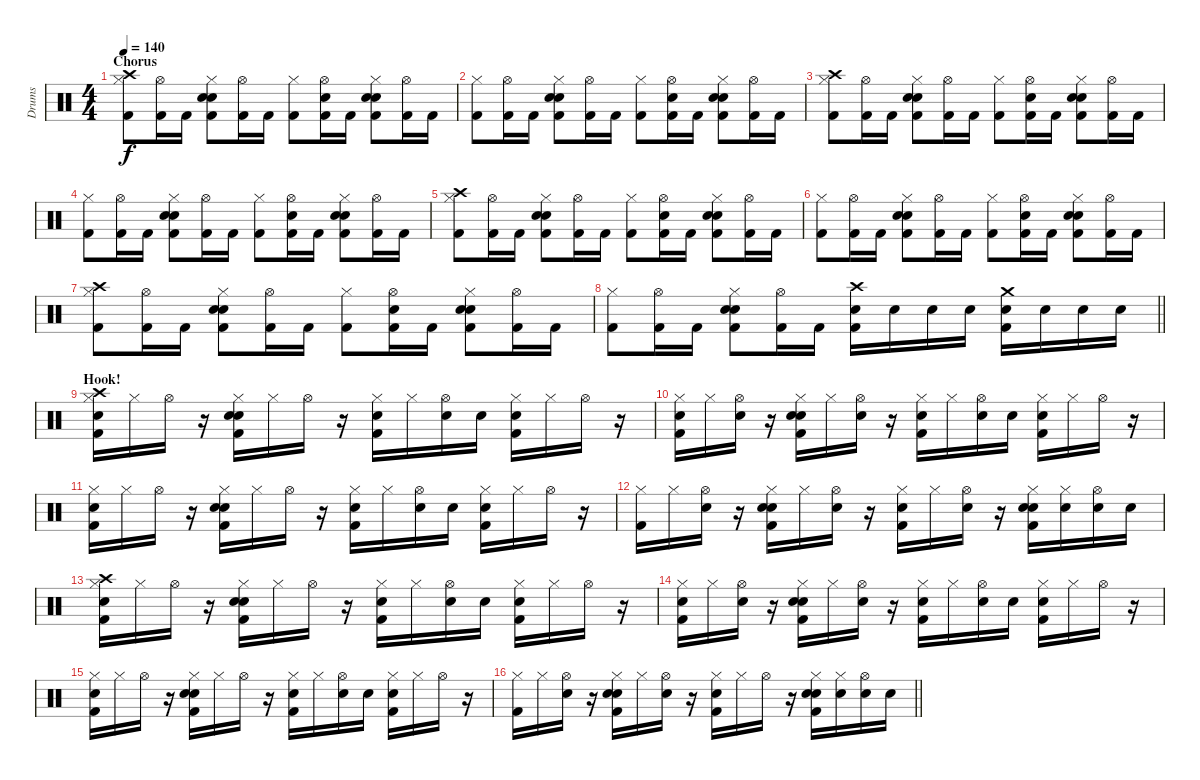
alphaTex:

\track ("Drums" "Drums") {instrument percussion}
\staff {score}
\articulation defaults
\ts (4 4)
\section ("" "Chorus")
\tempo 140
\clef neutral
\ks c
("Crash high (hit)" "Hi-Hat (closed)" "Kick (hit) 2").8{dy f} ("Hi-Hat (open)" "Kick (hit) 2").16 "Kick (hit) 2".16 ("Hi-Hat (closed)" "Hand Clap (hit)" "Snare (hit) 2" "Kick (hit) 2").8 ("Hi-Hat (open)" "Kick (hit) 2").16 "Kick (hit) 2".16 ("Hi-Hat (closed)" "Kick (hit) 2").8 ("Hi-Hat (open)" "Hand Clap (hit)" "Kick (hit) 2").16 "Kick (hit) 2".16 ("Hi-Hat (closed)" "Hand Clap (hit)" "Snare (hit) 2" "Kick (hit) 2").8 ("Hi-Hat (open)" "Kick (hit) 2").16 "Kick (hit) 2".16 |
("Hi-Hat (closed)" "Kick (hit) 2").8 ("Hi-Hat (open)" "Kick (hit) 2").16 "Kick (hit) 2".16 ("Hi-Hat (closed)" "Hand Clap (hit)" "Snare (hit) 2" "Kick (hit) 2").8 ("Hi-Hat (open)" "Kick (hit) 2").16 "Kick (hit) 2".16 ("Hi-Hat (closed)" "Kick (hit) 2").8 ("Hi-Hat (open)" "Hand Clap (hit)" "Kick (hit) 2").16 "Kick (hit) 2".16 ("Hi-Hat (closed)" "Hand Clap (hit)" "Snare (hit) 2" "Kick (hit) 2").8 ("Hi-Hat (open)" "Kick (hit) 2").16 "Kick (hit) 2".16 |
("Crash high (hit)" "Hi-Hat (closed)" "Kick (hit) 2").8 ("Hi-Hat (open)" "Kick (hit) 2").16 "Kick (hit) 2".16 ("Hi-Hat (closed)" "Hand Clap (hit)" "Snare (hit) 2" "Kick (hit) 2").8 ("Hi-Hat (open)" "Kick (hit) 2").16 "Kick (hit) 2".16 ("Hi-Hat (closed)" "Kick (hit) 2").8 ("Hi-Hat (open)" "Hand Clap (hit)" "Kick (hit) 2").16 "Kick (hit) 2".16 ("Hi-Hat (closed)" "Hand Clap (hit)" "Snare (hit) 2" "Kick (hit) 2").8 ("Hi-Hat (open)" "Kick (hit) 2").16 "Kick (hit) 2".16 |
("Hi-Hat (closed)" "Kick (hit) 2").8 ("Hi-Hat (open)" "Kick (hit) 2").16 "Kick (hit) 2".16 ("Hi-Hat (closed)" "Hand Clap (hit)" "Snare (hit) 2" "Kick (hit) 2").8 ("Hi-Hat (open)" "Kick (hit) 2").16 "Kick (hit) 2".16 ("Hi-Hat (closed)" "Kick (hit) 2").8 ("Hi-Hat (open)" "Hand Clap (hit)" "Kick (hit) 2").16 "Kick (hit) 2".16 ("Hi-Hat (closed)" "Hand Clap (hit)" "Snare (hit) 2" "Kick (hit) 2").8 ("Hi-Hat (open)" "Kick (hit) 2").16 "Kick (hit) 2".16 |
("Crash high (hit)" "Hi-Hat (closed)" "Kick (hit) 2").8 ("Hi-Hat (open)" "Kick (hit) 2").16 "Kick (hit) 2".16 ("Hi-Hat (closed)" "Hand Clap (hit)" "Snare (hit) 2" "Kick (hit) 2").8 ("Hi-Hat (open)" "Kick (hit) 2").16 "Kick (hit) 2".16 ("Hi-Hat (closed)" "Kick (hit) 2").8 ("Hi-Hat (open)" "Hand Clap (hit)" "Kick (hit) 2").16 "Kick (hit) 2".16 ("Hi-Hat (closed)" "Hand Clap (hit)" "Snare (hit) 2" "Kick (hit) 2").8 ("Hi-Hat (open)" "Kick (hit) 2").16 "Kick (hit) 2".16 |
("Hi-Hat (closed)" "Kick (hit) 2").8 ("Hi-Hat (open)" "Kick (hit) 2").16 "Kick (hit) 2".16 ("Hi-Hat (closed)" "Hand Clap (hit)" "Snare (hit) 2" "Kick (hit) 2").8 ("Hi-Hat (open)" "Kick (hit) 2").16 "Kick (hit) 2".16 ("Hi-Hat (closed)" "Kick (hit) 2").8 ("Hi-Hat (open)" "Hand Clap (hit)" "Kick (hit) 2").16 "Kick (hit) 2".16 ("Hi-Hat (closed)" "Hand Clap (hit)" "Snare (hit) 2" "Kick (hit) 2").8 ("Hi-Hat (open)" "Kick (hit) 2").16 "Kick (hit) 2".16 |
("Crash high (hit)" "Hi-Hat (closed)" "Kick (hit) 2").8 ("Hi-Hat (open)" "Kick (hit) 2").16 "Kick (hit) 2".16 ("Hi-Hat (closed)" "Hand Clap (hit)" "Snare (hit) 2" "Kick (hit) 2").8 ("Hi-Hat (open)" "Kick (hit) 2").16 "Kick (hit) 2".16 ("Hi-Hat (closed)" "Kick (hit) 2").8 ("Hi-Hat (open)" "Hand Clap (hit)" "Kick (hit) 2").16 "Kick (hit) 2".16 ("Hi-Hat (closed)" "Hand Clap (hit)" "Snare (hit) 2" "Kick (hit) 2").8 ("Hi-Hat (open)" "Kick (hit) 2").16 "Kick (hit) 2".16 |
\barLineRight lightlight
("Hi-Hat (closed)" "Kick (hit) 2").8 ("Hi-Hat (open)" "Kick (hit) 2").16 "Kick (hit) 2".16 ("Hi-Hat (closed)" "Hand Clap (hit)" "Snare (hit) 2" "Kick (hit) 2").8 ("Hi-Hat (open)" "Kick (hit) 2").16 "Kick (hit) 2".16 ("Crash high (hit)" "Snare (hit) 2" "Kick (hit) 2").16 "Snare (hit) 2".16 "Snare (hit) 2".16 "Snare (hit) 2".16 ("Crash medium (hit)" "Snare (hit) 2" "Kick (hit) 2").16 "Snare (hit) 2".16 "Snare (hit) 2".16 "Snare (hit) 2".16 |
\section ("" "Hook!")
("Crash high (hit)" "Hi-Hat (closed)" "Hand Clap (hit)" "Kick (hit) 2").16 "Hi-Hat (closed)".16 "Hi-Hat (open)".16 r.16 ("Hi-Hat (closed)" "Hand Clap (hit)" "Snare (hit) 2" "Kick (hit) 2").16 "Hi-Hat (closed)".16 "Hi-Hat (open)".16 r.16 ("Hi-Hat (closed)" "Hand Clap (hit)" "Kick (hit) 2").16 "Hi-Hat (closed)".16 ("Hi-Hat (open)" "Hand Clap (hit)").16 "Hand Clap (hit)".16 ("Hi-Hat (closed)" "Snare (hit) 2" "Kick (hit) 2").16 "Hi-Hat (closed)".16 "Hi-Hat (open)".16 r.16 |
("Hi-Hat (closed)" "Hand Clap (hit)" "Kick (hit) 2").16 "Hi-Hat (closed)".16 ("Hi-Hat (open)" "Hand Clap (hit)").16 r.16 ("Hi-Hat (closed)" "Hand Clap (hit)" "Snare (hit) 2" "Kick (hit) 2").16 "Hi-Hat (closed)".16 ("Hi-Hat (open)" "Hand Clap (hit)").16 r.16 ("Hi-Hat (closed)" "Hand Clap (hit)" "Kick (hit) 2").16 "Hi-Hat (closed)".16 ("Hi-Hat (open)" "Hand Clap (hit)").16 "Hand Clap (hit)".16 ("Hi-Hat (closed)" "Snare (hit) 2" "Kick (hit) 2").16 "Hi-Hat (closed)".16 "Hi-Hat (open)".16 r.16 |
("Hi-Hat (closed)" "Hand Clap (hit)" "Kick (hit) 2").16 "Hi-Hat (closed)".16 "Hi-Hat (open)".16 r.16 ("Hi-Hat (closed)" "Hand Clap (hit)" "Snare (hit) 2" "Kick (hit) 2").16 "Hi-Hat (closed)".16 "Hi-Hat (open)".16 r.16 ("Hi-Hat (closed)" "Hand Clap (hit)" "Kick (hit) 2").16 "Hi-Hat (closed)".16 ("Hi-Hat (open)" "Hand Clap (hit)").16 "Hand Clap (hit)".16 ("Hi-Hat (closed)" "Snare (hit) 2" "Kick (hit) 2").16 "Hi-Hat (closed)".16 "Hi-Hat (open)".16 r.16 |
("Hi-Hat (closed)" "Kick (hit) 2").16 "Hi-Hat (closed)".16 ("Hi-Hat (open)" "Hand Clap (hit)").16 r.16 ("Hi-Hat (closed)" "Hand Clap (hit)" "Snare (hit) 2" "Kick (hit) 2").16 "Hi-Hat (closed)".16 ("Hi-Hat (open)" "Hand Clap (hit)").16 r.16 ("Hi-Hat (closed)" "Hand Clap (hit)" "Kick (hit) 2").16 "Hi-Hat (closed)".16 ("Hi-Hat (open)" "Hand Clap (hit)").16 r.16 ("Hi-Hat (closed)" "Hand Clap (hit)" "Snare (hit) 2" "Kick (hit) 2").16 ("Hi-Hat (closed)" "Snare (hit) 2").16 ("Hi-Hat (open)" "Snare (hit) 2").16 "Snare (hit) 2".16 |
("Crash high (hit)" "Hi-Hat (closed)" "Hand Clap (hit)" "Kick (hit) 2").16 "Hi-Hat (closed)".16 "Hi-Hat (open)".16 r.16 ("Hi-Hat (closed)" "Hand Clap (hit)" "Snare (hit) 2" "Kick (hit) 2").16 "Hi-Hat (closed)".16 "Hi-Hat (open)".16 r.16 ("Hi-Hat (closed)" "Hand Clap (hit)" "Kick (hit) 2").16 "Hi-Hat (closed)".16 ("Hi-Hat (open)" "Hand Clap (hit)").16 "Hand Clap (hit)".16 ("Hi-Hat (closed)" "Snare (hit) 2" "Kick (hit) 2").16 "Hi-Hat (closed)".16 "Hi-Hat (open)".16 r.16 |
("Hi-Hat (closed)" "Hand Clap (hit)" "Kick (hit) 2").16 "Hi-Hat (closed)".16 ("Hi-Hat (open)" "Hand Clap (hit)").16 r.16 ("Hi-Hat (closed)" "Hand Clap (hit)" "Snare (hit) 2" "Kick (hit) 2").16 "Hi-Hat (closed)".16 ("Hi-Hat (open)" "Hand Clap (hit)").16 r.16 ("Hi-Hat (closed)" "Hand Clap (hit)" "Kick (hit) 2").16 "Hi-Hat (closed)".16 ("Hi-Hat (open)" "Hand Clap (hit)").16 "Hand Clap (hit)".16 ("Hi-Hat (closed)" "Snare (hit) 2" "Kick (hit) 2").16 "Hi-Hat (closed)".16 "Hi-Hat (open)".16 r.16 |
("Hi-Hat (closed)" "Hand Clap (hit)" "Kick (hit) 2").16 "Hi-Hat (closed)".16 "Hi-Hat (open)".16 r.16 ("Hi-Hat (closed)" "Hand Clap (hit)" "Snare (hit) 2" "Kick (hit) 2").16 "Hi-Hat (closed)".16 "Hi-Hat (open)".16 r.16 ("Hi-Hat (closed)" "Hand Clap (hit)" "Kick (hit) 2").16 "Hi-Hat (closed)".16 ("Hi-Hat (open)" "Hand Clap (hit)").16 "Hand Clap (hit)".16 ("Hi-Hat (closed)" "Snare (hit) 2" "Kick (hit) 2").16 "Hi-Hat (closed)".16 "Hi-Hat (open)".16 r.16 |
\barLineRight lightlight
("Hi-Hat (closed)" "Kick (hit) 2").16 "Hi-Hat (closed)".16 ("Hi-Hat (open)" "Hand Clap (hit)").16 r.16 ("Hi-Hat (closed)" "Hand Clap (hit)" "Snare (hit) 2" "Kick (hit) 2").16 "Hi-Hat (closed)".16 ("Hi-Hat (open)" "Hand Clap (hit)").16 r.16 ("Hi-Hat (closed)" "Hand Clap (hit)" "Kick (hit) 2").16 "Hi-Hat (closed)".16 "Hi-Hat (open)".16 r.16 ("Hi-Hat (closed)" "Hand Clap (hit)" "Snare (hit) 2" "Kick (hit) 2").16 ("Hi-Hat (closed)" "Snare (hit) 2").16 ("Hi-Hat (open)" "Snare (hit) 2").16 "Snare (hit) 2".16
